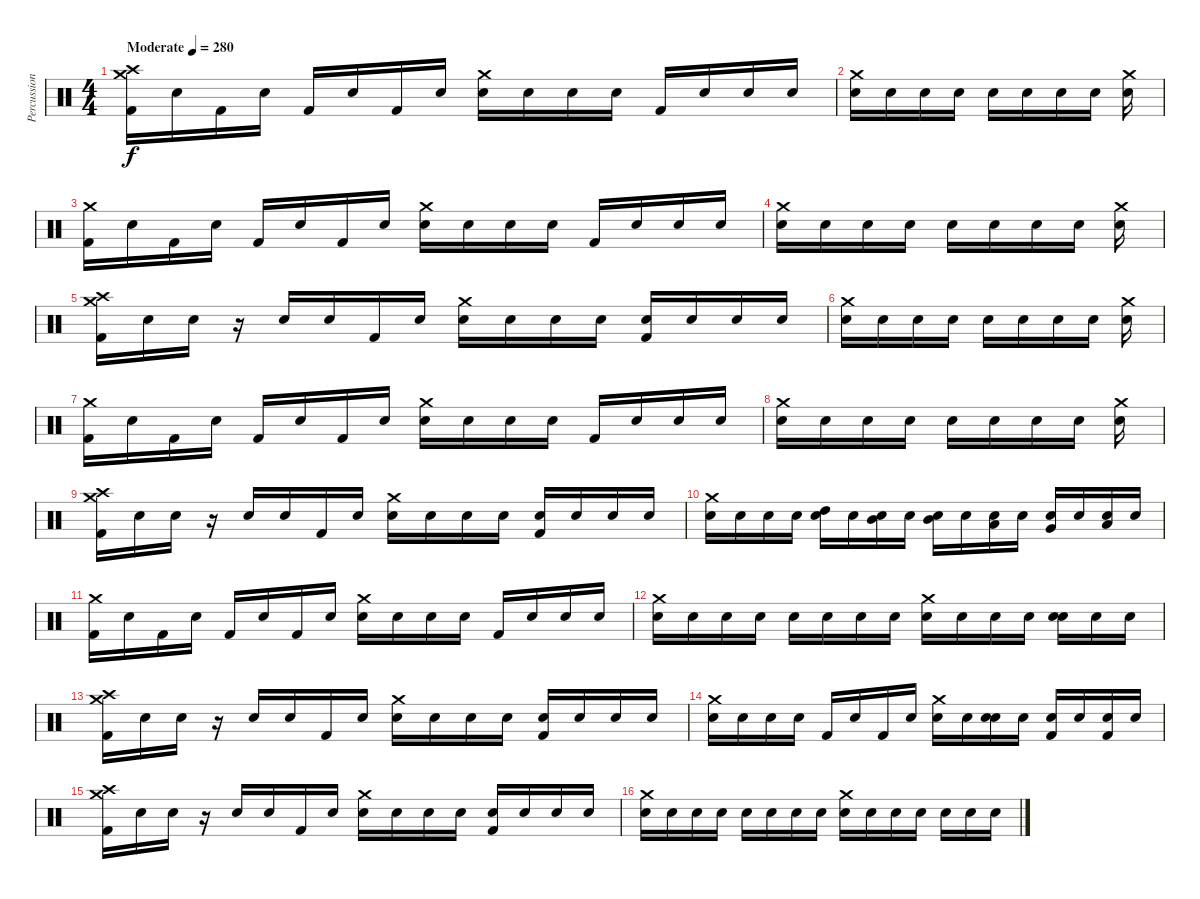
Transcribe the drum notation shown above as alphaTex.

\track ("Percussion" "Percussion") {instrument percussion}
\staff {score}
\articulation defaults
\ts (4 4)
\tempo (280 "Moderate")
\clef neutral
\ks c
("Crash medium (hit)" "Kick (hit) 2" "Crash high (hit)").16{dy f} "Snare (hit)".16 "Kick (hit) 2".16 "Snare (hit)".16 "Kick (hit) 2".16 "Snare (hit)".16 "Kick (hit) 2".16 "Snare (hit)".16 ("Crash medium (hit)" "Snare (hit)").16 "Snare (hit)".16 "Snare (hit)".16 "Snare (hit)".16 "Kick (hit) 2".16 "Snare (hit)".16 "Snare (hit)".16 "Snare (hit)".16 |
("Crash medium (hit)" "Snare (hit) 2").16 "Snare (hit)".16 "Snare (hit)".16 "Snare (hit)".16 "Snare (hit)".16 "Snare (hit)".16 "Snare (hit)".16 "Snare (hit)".16 ("Crash medium (hit)" "Snare (hit)").16 |
("Crash medium (hit)" "Kick (hit) 2").16 "Snare (hit)".16 "Kick (hit) 2".16 "Snare (hit)".16 "Kick (hit) 2".16 "Snare (hit)".16 "Kick (hit) 2".16 "Snare (hit)".16 ("Crash medium (hit)" "Snare (hit)").16 "Snare (hit)".16 "Snare (hit)".16 "Snare (hit)".16 "Kick (hit) 2".16 "Snare (hit)".16 "Snare (hit)".16 "Snare (hit)".16 |
("Crash medium (hit)" "Snare (hit) 2").16 "Snare (hit)".16 "Snare (hit)".16 "Snare (hit)".16 "Snare (hit)".16 "Snare (hit)".16 "Snare (hit)".16 "Snare (hit)".16 ("Crash medium (hit)" "Snare (hit)").16 |
("Crash high (hit)" "Crash medium (hit)" "Kick (hit) 2").16 "Snare (hit)".16 "Snare (hit)".16 r.16 "Snare (hit)".16 "Snare (hit)".16 "Kick (hit) 2".16 "Snare (hit)".16 ("Crash medium (hit)" "Snare (hit)").16 "Snare (hit)".16 "Snare (hit)".16 "Snare (hit)".16 ("Kick (hit) 2" "Snare (hit)").16 "Snare (hit)".16 "Snare (hit)".16 "Snare (hit)".16 |
("Crash medium (hit)" "Snare (hit) 2").16 "Snare (hit)".16 "Snare (hit)".16 "Snare (hit)".16 "Snare (hit)".16 "Snare (hit)".16 "Snare (hit)".16 "Snare (hit)".16 ("Crash medium (hit)" "Snare (hit)").16 |
("Crash medium (hit)" "Kick (hit) 2").16 "Snare (hit)".16 "Kick (hit) 2".16 "Snare (hit)".16 "Kick (hit) 2".16 "Snare (hit)".16 "Kick (hit) 2".16 "Snare (hit)".16 ("Crash medium (hit)" "Snare (hit)").16 "Snare (hit)".16 "Snare (hit)".16 "Snare (hit)".16 "Kick (hit) 2".16 "Snare (hit)".16 "Snare (hit)".16 "Snare (hit)".16 |
("Crash medium (hit)" "Snare (hit) 2").16 "Snare (hit)".16 "Snare (hit)".16 "Snare (hit)".16 "Snare (hit)".16 "Snare (hit)".16 "Snare (hit)".16 "Snare (hit)".16 ("Crash medium (hit)" "Snare (hit)").16 |
("Crash high (hit)" "Crash medium (hit)" "Kick (hit) 2").16 "Snare (hit)".16 "Snare (hit)".16 r.16 "Snare (hit)".16 "Snare (hit)".16 "Kick (hit) 2".16 "Snare (hit)".16 ("Crash medium (hit)" "Snare (hit)").16 "Snare (hit)".16 "Snare (hit)".16 "Snare (hit)".16 ("Kick (hit) 2" "Snare (hit)").16 "Snare (hit)".16 "Snare (hit)".16 "Snare (hit)".16 |
("Snare (hit) 2" "Crash medium (hit)").16 "Snare (hit)".16 "Snare (hit)".16 "Snare (hit)".16 ("High Tom (hit)" "Snare (hit)").16 "Snare (hit)".16 ("Mid Tom (hit)" "Snare (hit)").16 "Snare (hit)".16 ("Mid Tom (hit)" "Snare (hit)").16 "Snare (hit)".16 ("Low Tom (hit)" "Snare (hit)").16 "Snare (hit)".16 ("Very Low Tom (hit)" "Snare (hit)").16 "Snare (hit)".16 ("Low Floor Tom (hit)" "Snare (hit)").16 "Snare (hit)".16 |
("Crash medium (hit)" "Kick (hit) 2").16 "Snare (hit)".16 "Kick (hit) 2".16 "Snare (hit)".16 "Kick (hit) 2".16 "Snare (hit)".16 "Kick (hit) 2".16 "Snare (hit)".16 ("Crash medium (hit)" "Snare (hit)").16 "Snare (hit)".16 "Snare (hit)".16 "Snare (hit)".16 "Kick (hit) 2".16 "Snare (hit)".16 "Snare (hit)".16 "Snare (hit)".16 |
("Crash medium (hit)" "Snare (hit) 2").16 "Snare (hit)".16 "Snare (hit)".16 "Snare (hit)".16 "Snare (hit)".16 "Snare (hit)".16 "Snare (hit)".16 "Snare (hit)".16 ("Crash medium (hit)" "Snare (hit)").16 "Snare (hit)".16 "Snare (hit)".16 "Snare (hit)".16 ("Snare (hit) 2" "Snare (hit)").16 "Snare (hit)".16 "Snare (hit) 2".16 |
("Crash high (hit)" "Crash medium (hit)" "Kick (hit) 2").16 "Snare (hit)".16 "Snare (hit)".16 r.16 "Snare (hit)".16 "Snare (hit)".16 "Kick (hit) 2".16 "Snare (hit)".16 ("Crash medium (hit)" "Snare (hit)").16 "Snare (hit)".16 "Snare (hit)".16 "Snare (hit)".16 ("Kick (hit) 2" "Snare (hit)").16 "Snare (hit)".16 "Snare (hit)".16 "Snare (hit)".16 |
("Snare (hit) 2" "Crash medium (hit)").16 "Snare (hit)".16 "Snare (hit) 2".16 "Snare (hit)".16 "Kick (hit) 2".16 "Snare (hit)".16 "Kick (hit) 2".16 "Snare (hit)".16 ("Snare (hit) 2" "Crash medium (hit)").16 "Snare (hit)".16 ("Snare (hit) 2" "Snare (hit)").16 "Snare (hit)".16 ("Kick (hit) 2" "Snare (hit)").16 "Snare (hit)".16 ("Kick (hit) 2" "Snare (hit)").16 "Snare (hit)".16 |
("Crash high (hit)" "Crash medium (hit)" "Kick (hit) 2").16 "Snare (hit)".16 "Snare (hit)".16 r.16 "Snare (hit)".16 "Snare (hit)".16 "Kick (hit) 2".16 "Snare (hit)".16 ("Crash medium (hit)" "Snare (hit)").16 "Snare (hit)".16 "Snare (hit)".16 "Snare (hit)".16 ("Kick (hit) 2" "Snare (hit)").16 "Snare (hit)".16 "Snare (hit)".16 "Snare (hit)".16 |
("Crash medium (hit)" "Snare (hit) 2").16 "Snare (hit)".16 "Snare (hit)".16 "Snare (hit)".16 "Snare (hit)".16 "Snare (hit)".16 "Snare (hit)".16 "Snare (hit)".16 ("Crash medium (hit)" "Snare (hit)").16 "Snare (hit)".16 "Snare (hit)".16 "Snare (hit)".16 "Snare (hit) 2".16 "Snare (hit)".16 "Snare (hit) 2".16
